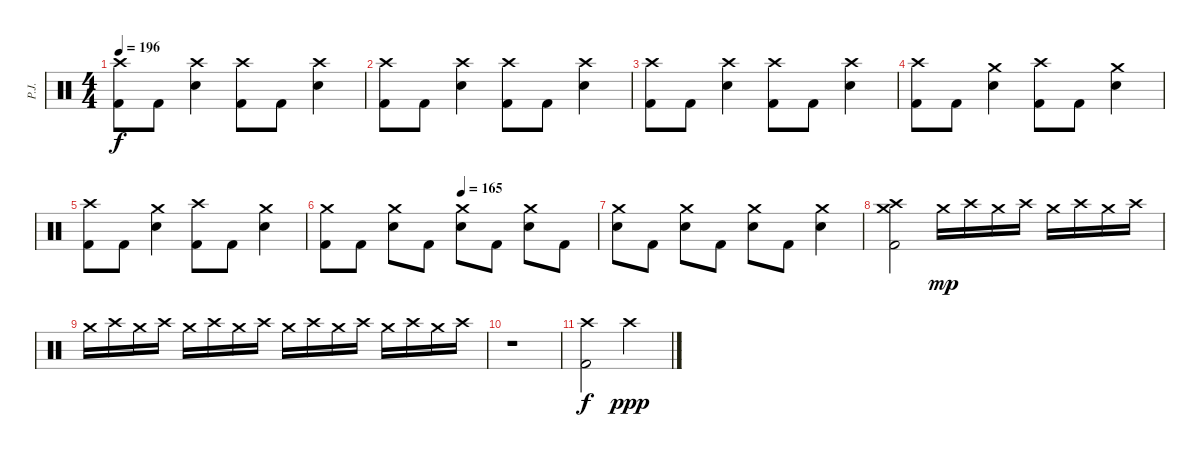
\track ("P.J." "P.J.") {instrument percussion}
\staff {score}
\articulation defaults
\ts (4 4)
\tempo 196
\clef neutral
\ks c
("Crash high (hit)" "Kick (hit) 2").8{dy f} "Kick (hit) 2".8 ("Crash high (hit)" "Snare (hit) 2").4 ("Crash high (hit)" "Kick (hit) 2").8 "Kick (hit) 2".8 ("Crash high (hit)" "Snare (hit) 2").4 |
("Crash high (hit)" "Kick (hit) 2").8 "Kick (hit) 2".8 ("Crash high (hit)" "Snare (hit) 2").4 ("Crash high (hit)" "Kick (hit) 2").8 "Kick (hit) 2".8 ("Crash high (hit)" "Snare (hit) 2").4 |
("Crash high (hit)" "Kick (hit) 2").8 "Kick (hit) 2".8 ("Crash high (hit)" "Snare (hit) 2").4 ("Crash high (hit)" "Kick (hit) 2").8 "Kick (hit) 2".8 ("Crash high (hit)" "Snare (hit) 2").4 |
("Crash high (hit)" "Kick (hit) 2").8 "Kick (hit) 2".8 ("Crash medium (hit)" "Snare (hit) 2").4 ("Crash high (hit)" "Kick (hit) 2").8 "Kick (hit) 2".8 ("Crash medium (hit)" "Snare (hit) 2").4 |
("Crash high (hit)" "Kick (hit) 2").8 "Kick (hit) 2".8 ("Crash medium (hit)" "Snare (hit) 2").4 ("Crash high (hit)" "Kick (hit) 2").8 "Kick (hit) 2".8 ("Crash medium (hit)" "Snare (hit) 2").4 |
\tempo (165 0.5)
("Crash medium (hit)" "Kick (hit) 2").8 "Kick (hit) 2".8 ("Crash medium (hit)" "Snare (hit) 2").8 "Kick (hit) 2".8 ("Crash medium (hit)" "Snare (hit) 2").8 "Kick (hit) 2".8 ("Crash medium (hit)" "Snare (hit) 2").8 "Kick (hit) 2".8 |
("Crash medium (hit)" "Snare (hit) 2").8 "Kick (hit) 2".8 ("Crash medium (hit)" "Snare (hit) 2").8 "Kick (hit) 2".8 ("Crash medium (hit)" "Snare (hit) 2").8 "Kick (hit) 2".8 ("Crash medium (hit)" "Snare (hit) 2").4 |
("Crash high (hit)" "Crash medium (hit)" "Kick (hit) 2").2 "Crash medium (hit)".16{dy mp} "Crash high (hit)".16 "Crash medium (hit)".16 "Crash high (hit)".16 "Crash medium (hit)".16 "Crash high (hit)".16 "Crash medium (hit)".16 "Crash high (hit)".16 |
"Crash medium (hit)".16 "Crash high (hit)".16 "Crash medium (hit)".16 "Crash high (hit)".16 "Crash medium (hit)".16 "Crash high (hit)".16 "Crash medium (hit)".16 "Crash high (hit)".16 "Crash medium (hit)".16 "Crash high (hit)".16 "Crash medium (hit)".16 "Crash high (hit)".16 "Crash medium (hit)".16 "Crash high (hit)".16 "Crash medium (hit)".16 "Crash high (hit)".16 |
r.1 |
("Crash high (hit)" "Kick (hit) 2").2{dy f} "Crash high (hit)".2{dy ppp}
